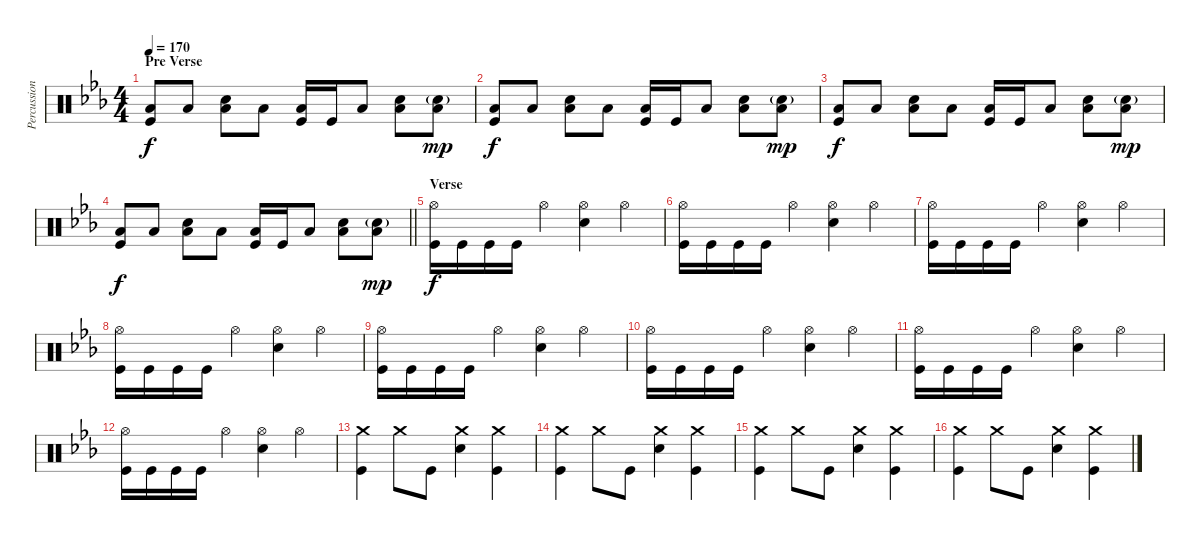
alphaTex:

\track ("Percussion" "Percussion") {instrument percussion}
\staff {score}
\articulation defaults
\ts (4 4)
\section ("" "Pre Verse")
\tempo 170
\clef neutral
\ks cminor
("Low Floor Tom (hit)" "Kick (hit)").8{dy f} "Low Floor Tom (hit)".8 ("Snare (hit) 2" "Low Floor Tom (hit)").8 "Low Floor Tom (hit)".8 ("Low Floor Tom (hit)" "Kick (hit)").16 "Kick (hit)".16 "Low Floor Tom (hit)".8 ("Snare (hit) 2" "Low Floor Tom (hit)").8 ("Snare (hit) 2"{g} "Low Floor Tom (hit)").8{dy mp} |
("Low Floor Tom (hit)" "Kick (hit)").8{dy f} "Low Floor Tom (hit)".8 ("Snare (hit) 2" "Low Floor Tom (hit)").8 "Low Floor Tom (hit)".8 ("Low Floor Tom (hit)" "Kick (hit)").16 "Kick (hit)".16 "Low Floor Tom (hit)".8 ("Snare (hit) 2" "Low Floor Tom (hit)").8 ("Snare (hit) 2"{g} "Low Floor Tom (hit)").8{dy mp} |
("Low Floor Tom (hit)" "Kick (hit)").8{dy f} "Low Floor Tom (hit)".8 ("Snare (hit) 2" "Low Floor Tom (hit)").8 "Low Floor Tom (hit)".8 ("Low Floor Tom (hit)" "Kick (hit)").16 "Kick (hit)".16 "Low Floor Tom (hit)".8 ("Snare (hit) 2" "Low Floor Tom (hit)").8 ("Snare (hit) 2"{g} "Low Floor Tom (hit)").8{dy mp} |
\barLineRight lightlight
("Low Floor Tom (hit)" "Kick (hit)").8{dy f} "Low Floor Tom (hit)".8 ("Snare (hit) 2" "Low Floor Tom (hit)").8 "Low Floor Tom (hit)".8 ("Low Floor Tom (hit)" "Kick (hit)").16 "Kick (hit)".16 "Low Floor Tom (hit)".8 ("Snare (hit) 2" "Low Floor Tom (hit)").8 ("Snare (hit) 2"{g} "Low Floor Tom (hit)").8{dy mp} |
\section ("" "Verse")
("Hi-Hat (open)" "Kick (hit)").16{dy f} "Kick (hit)".16 "Kick (hit)".16 "Kick (hit)".16 "Hi-Hat (open)".4 ("Hi-Hat (open)" "Snare (hit) 2").4 "Hi-Hat (open)".4 |
("Hi-Hat (open)" "Kick (hit)").16 "Kick (hit)".16 "Kick (hit)".16 "Kick (hit)".16 "Hi-Hat (open)".4 ("Hi-Hat (open)" "Snare (hit) 2").4 "Hi-Hat (open)".4 |
("Hi-Hat (open)" "Kick (hit)").16 "Kick (hit)".16 "Kick (hit)".16 "Kick (hit)".16 "Hi-Hat (open)".4 ("Hi-Hat (open)" "Snare (hit) 2").4 "Hi-Hat (open)".4 |
("Hi-Hat (open)" "Kick (hit)").16 "Kick (hit)".16 "Kick (hit)".16 "Kick (hit)".16 "Hi-Hat (open)".4 ("Hi-Hat (open)" "Snare (hit) 2").4 "Hi-Hat (open)".4 |
("Hi-Hat (open)" "Kick (hit)").16 "Kick (hit)".16 "Kick (hit)".16 "Kick (hit)".16 "Hi-Hat (open)".4 ("Hi-Hat (open)" "Snare (hit) 2").4 "Hi-Hat (open)".4 |
("Hi-Hat (open)" "Kick (hit)").16 "Kick (hit)".16 "Kick (hit)".16 "Kick (hit)".16 "Hi-Hat (open)".4 ("Hi-Hat (open)" "Snare (hit) 2").4 "Hi-Hat (open)".4 |
("Hi-Hat (open)" "Kick (hit)").16 "Kick (hit)".16 "Kick (hit)".16 "Kick (hit)".16 "Hi-Hat (open)".4 ("Hi-Hat (open)" "Snare (hit) 2").4 "Hi-Hat (open)".4 |
("Hi-Hat (open)" "Kick (hit)").16 "Kick (hit)".16 "Kick (hit)".16 "Kick (hit)".16 "Hi-Hat (open)".4 ("Hi-Hat (open)" "Snare (hit) 2").4 "Hi-Hat (open)".4 |
("Crash medium (hit)" "Kick (hit)").4 "Crash medium (hit)".8 "Kick (hit)".8 ("Crash medium (hit)" "Snare (hit) 2").4 ("Crash medium (hit)" "Kick (hit)").4 |
("Crash medium (hit)" "Kick (hit)").4 "Crash medium (hit)".8 "Kick (hit)".8 ("Crash medium (hit)" "Snare (hit) 2").4 ("Crash medium (hit)" "Kick (hit)").4 |
("Crash medium (hit)" "Kick (hit)").4 "Crash medium (hit)".8 "Kick (hit)".8 ("Crash medium (hit)" "Snare (hit) 2").4 ("Crash medium (hit)" "Kick (hit)").4 |
("Crash medium (hit)" "Kick (hit)").4 "Crash medium (hit)".8 "Kick (hit)".8 ("Crash medium (hit)" "Snare (hit) 2").4 ("Crash medium (hit)" "Kick (hit)").4
